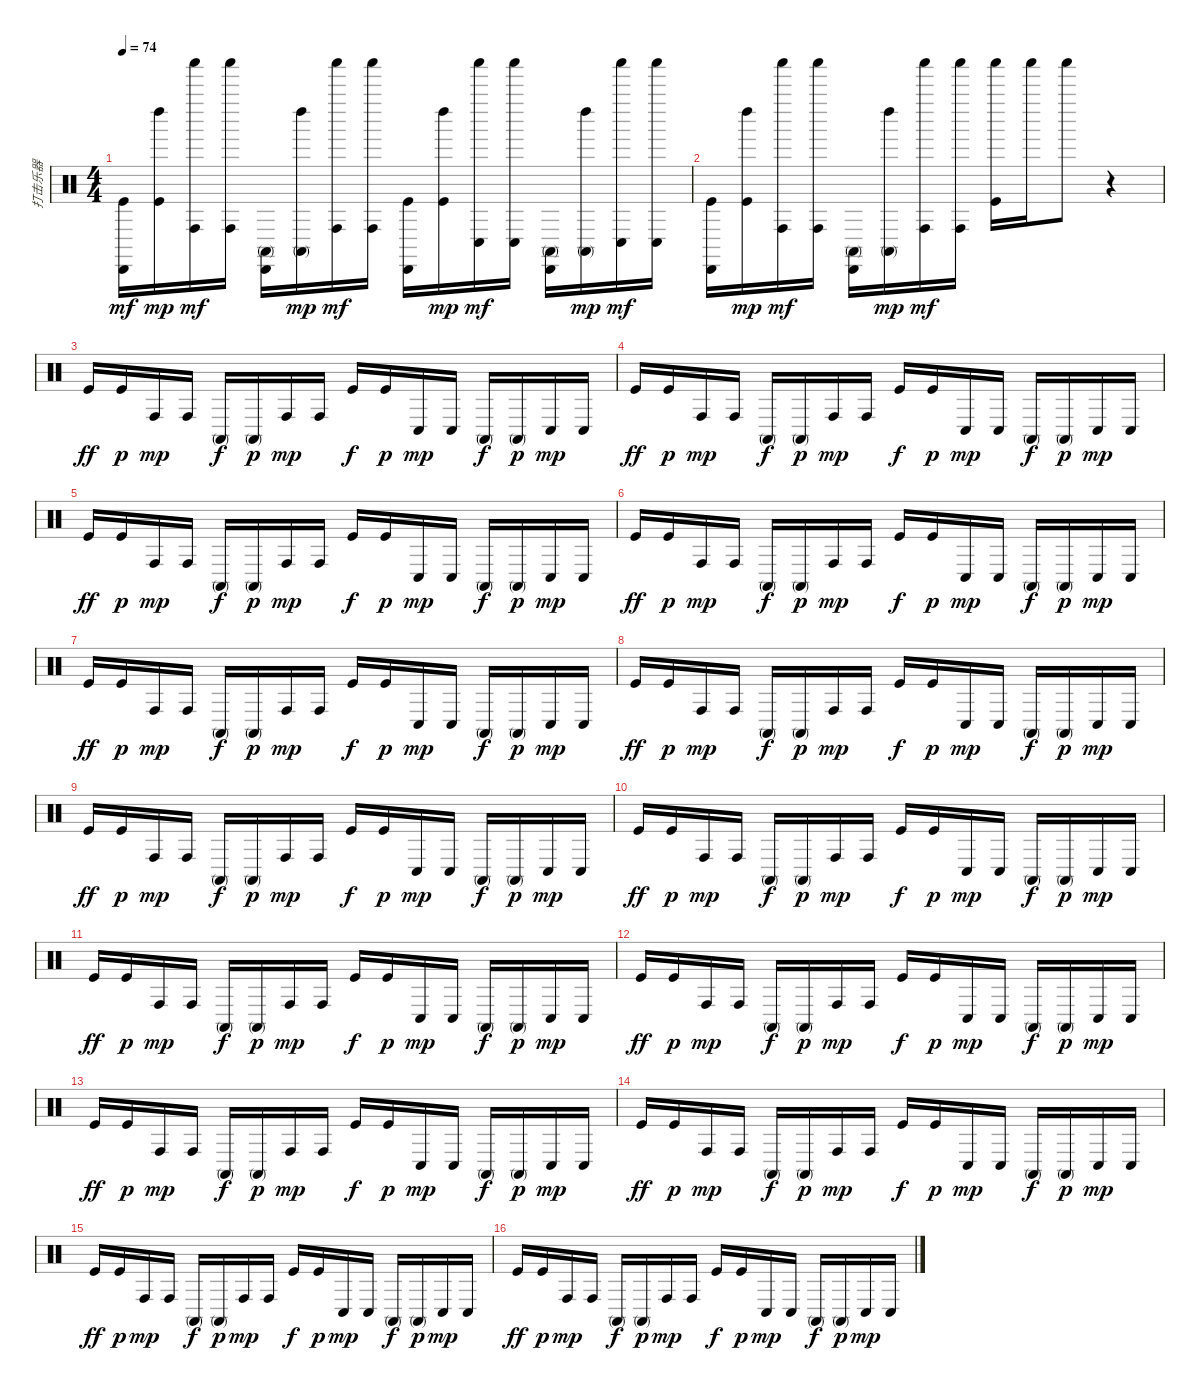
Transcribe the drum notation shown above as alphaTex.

\track ("打击乐器" "打击乐器") {instrument percussion}
\staff {score}
\articulation defaults
\ts (4 4)
\tempo 74
\clef neutral
\ks c
("Kick (hit)" "Cabasa (hit)").16{dy mf} ("Kick (hit)" "Left Maraca (hit)").16{dy mp} ("Conga high (hit)" "Shaker (hit)").16{dy mf} ("Conga high (hit)" "Shaker (hit)").16 ("Conga high (mute)" "Cabasa (hit)").16 ("Conga high (mute)" "Left Maraca (hit)").16{dy mp} ("Conga high (hit)" "Shaker (hit)").16{dy mf} ("Conga high (hit)" "Shaker (hit)").16 ("Kick (hit)" "Cabasa (hit)").16 ("Kick (hit)" "Left Maraca (hit)").16{dy mp} ("Conga low (hit)" "Shaker (hit)").16{dy mf} ("Conga low (hit)" "Shaker (hit)").16 ("Conga high (mute)" "Cabasa (hit)").16 ("Conga high (mute)" "Left Maraca (hit)").16{dy mp} ("Conga low (hit)" "Shaker (hit)").16{dy mf} ("Conga low (hit)" "Shaker (hit)").16 |
("Kick (hit)" "Cabasa (hit)").16 ("Kick (hit)" "Left Maraca (hit)").16{dy mp} ("Conga high (hit)" "Shaker (hit)").16{dy mf} ("Conga high (hit)" "Shaker (hit)").16 ("Conga high (mute)" "Cabasa (hit)").16 ("Conga high (mute)" "Left Maraca (hit)").16{dy mp} ("Conga high (hit)" "Shaker (hit)").16{dy mf} ("Conga high (hit)" "Shaker (hit)").16 ("Kick (hit)" "Shaker (hit)").16 "Shaker (hit)".16 "Shaker (hit)".8 r.4 |
"Kick (hit)".16{dy ff} "Kick (hit)".16{dy p} "Conga high (hit)".16{dy mp} "Conga high (hit)".16 "Conga high (mute)".16{dy f} "Conga high (mute)".16{dy p} "Conga high (hit)".16{dy mp} "Conga high (hit)".16 "Kick (hit)".16{dy f} "Kick (hit)".16{dy p} "Conga low (hit)".16{dy mp} "Conga low (hit)".16 "Conga high (mute)".16{dy f} "Conga high (mute)".16{dy p} "Conga low (hit)".16{dy mp} "Conga low (hit)".16 |
"Kick (hit)".16{dy ff} "Kick (hit)".16{dy p} "Conga high (hit)".16{dy mp} "Conga high (hit)".16 "Conga high (mute)".16{dy f} "Conga high (mute)".16{dy p} "Conga high (hit)".16{dy mp} "Conga high (hit)".16 "Kick (hit)".16{dy f} "Kick (hit)".16{dy p} "Conga low (hit)".16{dy mp} "Conga low (hit)".16 "Conga high (mute)".16{dy f} "Conga high (mute)".16{dy p} "Conga low (hit)".16{dy mp} "Conga low (hit)".16 |
"Kick (hit)".16{dy ff} "Kick (hit)".16{dy p} "Conga high (hit)".16{dy mp} "Conga high (hit)".16 "Conga high (mute)".16{dy f} "Conga high (mute)".16{dy p} "Conga high (hit)".16{dy mp} "Conga high (hit)".16 "Kick (hit)".16{dy f} "Kick (hit)".16{dy p} "Conga low (hit)".16{dy mp} "Conga low (hit)".16 "Conga high (mute)".16{dy f} "Conga high (mute)".16{dy p} "Conga low (hit)".16{dy mp} "Conga low (hit)".16 |
"Kick (hit)".16{dy ff} "Kick (hit)".16{dy p} "Conga high (hit)".16{dy mp} "Conga high (hit)".16 "Conga high (mute)".16{dy f} "Conga high (mute)".16{dy p} "Conga high (hit)".16{dy mp} "Conga high (hit)".16 "Kick (hit)".16{dy f} "Kick (hit)".16{dy p} "Conga low (hit)".16{dy mp} "Conga low (hit)".16 "Conga high (mute)".16{dy f} "Conga high (mute)".16{dy p} "Conga low (hit)".16{dy mp} "Conga low (hit)".16 |
"Kick (hit)".16{dy ff} "Kick (hit)".16{dy p} "Conga high (hit)".16{dy mp} "Conga high (hit)".16 "Conga high (mute)".16{dy f} "Conga high (mute)".16{dy p} "Conga high (hit)".16{dy mp} "Conga high (hit)".16 "Kick (hit)".16{dy f} "Kick (hit)".16{dy p} "Conga low (hit)".16{dy mp} "Conga low (hit)".16 "Conga high (mute)".16{dy f} "Conga high (mute)".16{dy p} "Conga low (hit)".16{dy mp} "Conga low (hit)".16 |
"Kick (hit)".16{dy ff} "Kick (hit)".16{dy p} "Conga high (hit)".16{dy mp} "Conga high (hit)".16 "Conga high (mute)".16{dy f} "Conga high (mute)".16{dy p} "Conga high (hit)".16{dy mp} "Conga high (hit)".16 "Kick (hit)".16{dy f} "Kick (hit)".16{dy p} "Conga low (hit)".16{dy mp} "Conga low (hit)".16 "Conga high (mute)".16{dy f} "Conga high (mute)".16{dy p} "Conga low (hit)".16{dy mp} "Conga low (hit)".16 |
"Kick (hit)".16{dy ff} "Kick (hit)".16{dy p} "Conga high (hit)".16{dy mp} "Conga high (hit)".16 "Conga high (mute)".16{dy f} "Conga high (mute)".16{dy p} "Conga high (hit)".16{dy mp} "Conga high (hit)".16 "Kick (hit)".16{dy f} "Kick (hit)".16{dy p} "Conga low (hit)".16{dy mp} "Conga low (hit)".16 "Conga high (mute)".16{dy f} "Conga high (mute)".16{dy p} "Conga low (hit)".16{dy mp} "Conga low (hit)".16 |
"Kick (hit)".16{dy ff} "Kick (hit)".16{dy p} "Conga high (hit)".16{dy mp} "Conga high (hit)".16 "Conga high (mute)".16{dy f} "Conga high (mute)".16{dy p} "Conga high (hit)".16{dy mp} "Conga high (hit)".16 "Kick (hit)".16{dy f} "Kick (hit)".16{dy p} "Conga low (hit)".16{dy mp} "Conga low (hit)".16 "Conga high (mute)".16{dy f} "Conga high (mute)".16{dy p} "Conga low (hit)".16{dy mp} "Conga low (hit)".16 |
"Kick (hit)".16{dy ff} "Kick (hit)".16{dy p} "Conga high (hit)".16{dy mp} "Conga high (hit)".16 "Conga high (mute)".16{dy f} "Conga high (mute)".16{dy p} "Conga high (hit)".16{dy mp} "Conga high (hit)".16 "Kick (hit)".16{dy f} "Kick (hit)".16{dy p} "Conga low (hit)".16{dy mp} "Conga low (hit)".16 "Conga high (mute)".16{dy f} "Conga high (mute)".16{dy p} "Conga low (hit)".16{dy mp} "Conga low (hit)".16 |
"Kick (hit)".16{dy ff} "Kick (hit)".16{dy p} "Conga high (hit)".16{dy mp} "Conga high (hit)".16 "Conga high (mute)".16{dy f} "Conga high (mute)".16{dy p} "Conga high (hit)".16{dy mp} "Conga high (hit)".16 "Kick (hit)".16{dy f} "Kick (hit)".16{dy p} "Conga low (hit)".16{dy mp} "Conga low (hit)".16 "Conga high (mute)".16{dy f} "Conga high (mute)".16{dy p} "Conga low (hit)".16{dy mp} "Conga low (hit)".16 |
"Kick (hit)".16{dy ff} "Kick (hit)".16{dy p} "Conga high (hit)".16{dy mp} "Conga high (hit)".16 "Conga high (mute)".16{dy f} "Conga high (mute)".16{dy p} "Conga high (hit)".16{dy mp} "Conga high (hit)".16 "Kick (hit)".16{dy f} "Kick (hit)".16{dy p} "Conga low (hit)".16{dy mp} "Conga low (hit)".16 "Conga high (mute)".16{dy f} "Conga high (mute)".16{dy p} "Conga low (hit)".16{dy mp} "Conga low (hit)".16 |
"Kick (hit)".16{dy ff} "Kick (hit)".16{dy p} "Conga high (hit)".16{dy mp} "Conga high (hit)".16 "Conga high (mute)".16{dy f} "Conga high (mute)".16{dy p} "Conga high (hit)".16{dy mp} "Conga high (hit)".16 "Kick (hit)".16{dy f} "Kick (hit)".16{dy p} "Conga low (hit)".16{dy mp} "Conga low (hit)".16 "Conga high (mute)".16{dy f} "Conga high (mute)".16{dy p} "Conga low (hit)".16{dy mp} "Conga low (hit)".16 |
"Kick (hit)".16{dy ff} "Kick (hit)".16{dy p} "Conga high (hit)".16{dy mp} "Conga high (hit)".16 "Conga high (mute)".16{dy f} "Conga high (mute)".16{dy p} "Conga high (hit)".16{dy mp} "Conga high (hit)".16 "Kick (hit)".16{dy f} "Kick (hit)".16{dy p} "Conga low (hit)".16{dy mp} "Conga low (hit)".16 "Conga high (mute)".16{dy f} "Conga high (mute)".16{dy p} "Conga low (hit)".16{dy mp} "Conga low (hit)".16 |
"Kick (hit)".16{dy ff} "Kick (hit)".16{dy p} "Conga high (hit)".16{dy mp} "Conga high (hit)".16 "Conga high (mute)".16{dy f} "Conga high (mute)".16{dy p} "Conga high (hit)".16{dy mp} "Conga high (hit)".16 "Kick (hit)".16{dy f} "Kick (hit)".16{dy p} "Conga low (hit)".16{dy mp} "Conga low (hit)".16 "Conga high (mute)".16{dy f} "Conga high (mute)".16{dy p} "Conga low (hit)".16{dy mp} "Conga low (hit)".16
